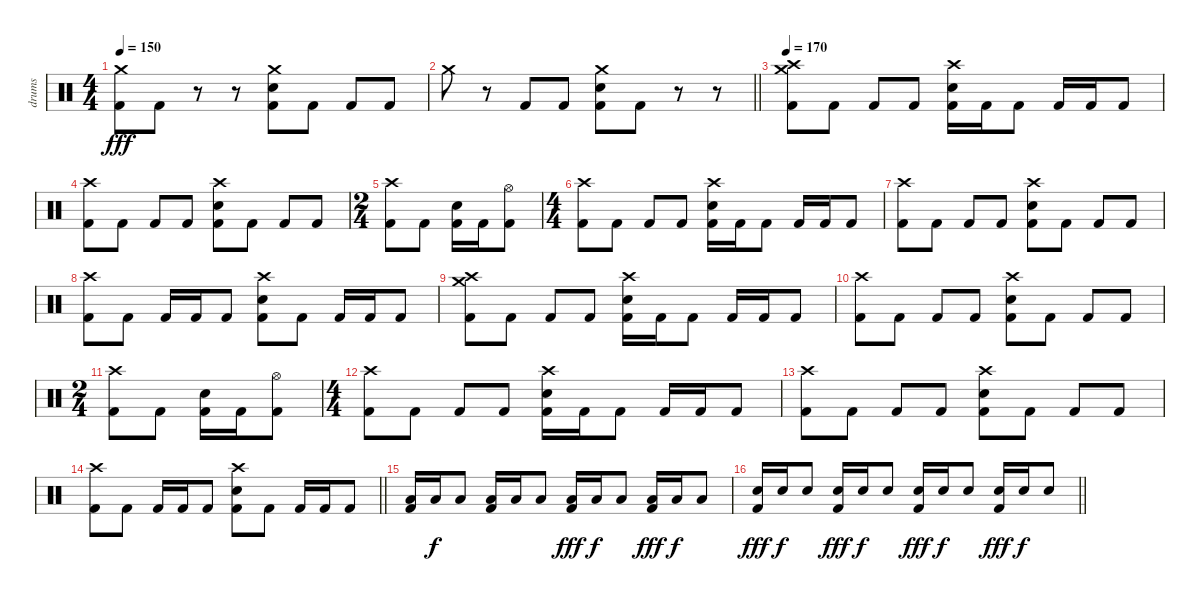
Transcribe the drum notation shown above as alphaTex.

\track ("drums" "drums") {instrument percussion}
\staff {score}
\articulation defaults
\ts (4 4)
\tempo 150
\clef neutral
\ks c
("Crash medium (hit)" "Kick (hit) 2").8{dy fff} "Kick (hit) 2".8 r.8 r.8 ("Crash medium (hit)" "Electric Snare (hit)" "Kick (hit) 2").8 "Kick (hit) 2".8 "Kick (hit) 2".8 "Kick (hit) 2".8 |
\barLineRight lightlight "Crash medium (hit)".8
r.8 "Kick (hit) 2".8 "Kick (hit) 2".8 ("Crash medium (hit)" "Electric Snare (hit)" "Kick (hit) 2").8 "Kick (hit) 2".8 r.8 r.8 |
\section ("" "")
\tempo 170
("Crash medium (hit)" "Crash high (hit)" "Kick (hit) 2").8 "Kick (hit) 2".8 "Kick (hit) 2".8 "Kick (hit) 2".8 ("Crash high (hit)" "Electric Snare (hit)" "Kick (hit) 2").16 "Kick (hit) 2".16 "Kick (hit) 2".8 "Kick (hit) 2".16 "Kick (hit) 2".16 "Kick (hit) 2".8 |
("Crash high (hit)" "Kick (hit) 2").8 "Kick (hit) 2".8 "Kick (hit) 2".8 "Kick (hit) 2".8 ("Crash high (hit)" "Electric Snare (hit)" "Kick (hit) 2").8 "Kick (hit) 2".8 "Kick (hit) 2".8 "Kick (hit) 2".8 |
\ts (2 4)
("Crash high (hit)" "Kick (hit) 2").8 "Kick (hit) 2".8 ("Electric Snare (hit)" "Kick (hit) 2").16 "Kick (hit) 2".16 ("Hi-Hat (open)" "Kick (hit) 2").8 |
\ts (4 4)
("Crash high (hit)" "Kick (hit) 2").8 "Kick (hit) 2".8 "Kick (hit) 2".8 "Kick (hit) 2".8 ("Crash high (hit)" "Electric Snare (hit)" "Kick (hit) 2").16 "Kick (hit) 2".16 "Kick (hit) 2".8 "Kick (hit) 2".16 "Kick (hit) 2".16 "Kick (hit) 2".8 |
("Crash high (hit)" "Kick (hit) 2").8 "Kick (hit) 2".8 "Kick (hit) 2".8 "Kick (hit) 2".8 ("Crash high (hit)" "Electric Snare (hit)" "Kick (hit) 2").8 "Kick (hit) 2".8 "Kick (hit) 2".8 "Kick (hit) 2".8 |
("Crash high (hit)" "Kick (hit) 2").8 "Kick (hit) 2".8 "Kick (hit) 2".16 "Kick (hit) 2".16 "Kick (hit) 2".8 ("Crash high (hit)" "Electric Snare (hit)" "Kick (hit) 2").8 "Kick (hit) 2".8 "Kick (hit) 2".16 "Kick (hit) 2".16 "Kick (hit) 2".8 |
("Crash medium (hit)" "Crash high (hit)" "Kick (hit) 2").8 "Kick (hit) 2".8 "Kick (hit) 2".8 "Kick (hit) 2".8 ("Crash high (hit)" "Electric Snare (hit)" "Kick (hit) 2").16 "Kick (hit) 2".16 "Kick (hit) 2".8 "Kick (hit) 2".16 "Kick (hit) 2".16 "Kick (hit) 2".8 |
("Crash high (hit)" "Kick (hit) 2").8 "Kick (hit) 2".8 "Kick (hit) 2".8 "Kick (hit) 2".8 ("Crash high (hit)" "Electric Snare (hit)" "Kick (hit) 2").8 "Kick (hit) 2".8 "Kick (hit) 2".8 "Kick (hit) 2".8 |
\ts (2 4)
("Crash high (hit)" "Kick (hit) 2").8 "Kick (hit) 2".8 ("Electric Snare (hit)" "Kick (hit) 2").16 "Kick (hit) 2".16 ("Hi-Hat (open)" "Kick (hit) 2").8 |
\ts (4 4)
("Crash high (hit)" "Kick (hit) 2").8 "Kick (hit) 2".8 "Kick (hit) 2".8 "Kick (hit) 2".8 ("Crash high (hit)" "Electric Snare (hit)" "Kick (hit) 2").16 "Kick (hit) 2".16 "Kick (hit) 2".8 "Kick (hit) 2".16 "Kick (hit) 2".16 "Kick (hit) 2".8 |
("Crash high (hit)" "Kick (hit) 2").8 "Kick (hit) 2".8 "Kick (hit) 2".8 "Kick (hit) 2".8 ("Crash high (hit)" "Electric Snare (hit)" "Kick (hit) 2").8 "Kick (hit) 2".8 "Kick (hit) 2".8 "Kick (hit) 2".8 |
\barLineRight lightlight
("Crash high (hit)" "Kick (hit) 2").8 "Kick (hit) 2".8 "Kick (hit) 2".16 "Kick (hit) 2".16 "Kick (hit) 2".8 ("Crash high (hit)" "Electric Snare (hit)" "Kick (hit) 2").8 "Kick (hit) 2".8 "Kick (hit) 2".16 "Kick (hit) 2".16 "Kick (hit) 2".8 |
\section ("" "")
("Low Floor Tom (hit)" "Kick (hit) 2").16 "Low Floor Tom (hit)".16{dy f} "Low Floor Tom (hit)".8 ("Low Floor Tom (hit)" "Kick (hit) 2").16 "Low Floor Tom (hit)".16 "Low Floor Tom (hit)".8 ("Low Floor Tom (hit)" "Kick (hit) 2").16{dy fff} "Low Floor Tom (hit)".16{dy f} "Low Floor Tom (hit)".8 ("Low Floor Tom (hit)" "Kick (hit) 2").16{dy fff} "Low Floor Tom (hit)".16{dy f} "Low Floor Tom (hit)".8 |
\barLineRight lightlight
("Electric Snare (hit)" "Kick (hit) 2").16{dy fff} "Electric Snare (hit)".16{dy f} "Electric Snare (hit)".8 ("Electric Snare (hit)" "Kick (hit) 2").16{dy fff} "Electric Snare (hit)".16{dy f} "Electric Snare (hit)".8 ("Electric Snare (hit)" "Kick (hit) 2").16{dy fff} "Electric Snare (hit)".16{dy f} "Electric Snare (hit)".8 ("Electric Snare (hit)" "Kick (hit) 2").16{dy fff} "Electric Snare (hit)".16{dy f} "Electric Snare (hit)".8
